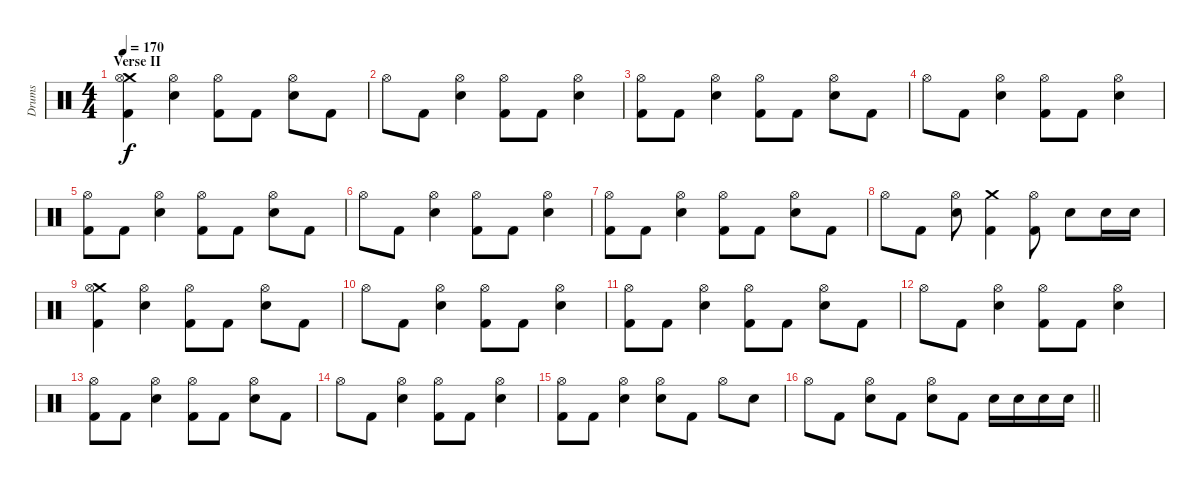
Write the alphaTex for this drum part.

\track ("Drums" "Drums") {instrument percussion}
\staff {score}
\articulation defaults
\ts (4 4)
\section ("" "Verse II")
\tempo 170
\clef neutral
\ks c
("Crash medium (hit)" "Hi-Hat (open)" "Kick (hit) 2").4{dy f} ("Hi-Hat (open)" "Electric Snare (hit)").4 ("Hi-Hat (open)" "Kick (hit) 2").8 "Kick (hit) 2".8 ("Hi-Hat (open)" "Electric Snare (hit)").8 "Kick (hit) 2".8 |
"Hi-Hat (open)".8 "Kick (hit) 2".8 ("Hi-Hat (open)" "Electric Snare (hit)").4 ("Hi-Hat (open)" "Kick (hit) 2").8 "Kick (hit) 2".8 ("Hi-Hat (open)" "Electric Snare (hit)").4 |
("Hi-Hat (open)" "Kick (hit) 2").8 "Kick (hit) 2".8 ("Hi-Hat (open)" "Electric Snare (hit)").4 ("Hi-Hat (open)" "Kick (hit) 2").8 "Kick (hit) 2".8 ("Hi-Hat (open)" "Electric Snare (hit)").8 "Kick (hit) 2".8 |
"Hi-Hat (open)".8 "Kick (hit) 2".8 ("Hi-Hat (open)" "Electric Snare (hit)").4 ("Hi-Hat (open)" "Kick (hit) 2").8 "Kick (hit) 2".8 ("Hi-Hat (open)" "Electric Snare (hit)").4 |
("Hi-Hat (open)" "Kick (hit) 2").8 "Kick (hit) 2".8 ("Hi-Hat (open)" "Electric Snare (hit)").4 ("Hi-Hat (open)" "Kick (hit) 2").8 "Kick (hit) 2".8 ("Hi-Hat (open)" "Electric Snare (hit)").8 "Kick (hit) 2".8 |
"Hi-Hat (open)".8 "Kick (hit) 2".8 ("Hi-Hat (open)" "Electric Snare (hit)").4 ("Hi-Hat (open)" "Kick (hit) 2").8 "Kick (hit) 2".8 ("Hi-Hat (open)" "Electric Snare (hit)").4 |
("Hi-Hat (open)" "Kick (hit) 2").8 "Kick (hit) 2".8 ("Hi-Hat (open)" "Electric Snare (hit)").4 ("Hi-Hat (open)" "Kick (hit) 2").8 "Kick (hit) 2".8 ("Hi-Hat (open)" "Electric Snare (hit)").8 "Kick (hit) 2".8 |
"Hi-Hat (open)".8 "Kick (hit) 2".8 ("Hi-Hat (open)" "Electric Snare (hit)").8 ("Crash medium (hit)" "Kick (hit) 2").4 ("Hi-Hat (open)" "Kick (hit) 2").8 "Electric Snare (hit)".8 "Electric Snare (hit)".16 "Electric Snare (hit)".16 |
("Crash medium (hit)" "Hi-Hat (open)" "Kick (hit) 2").4 ("Hi-Hat (open)" "Electric Snare (hit)").4 ("Hi-Hat (open)" "Kick (hit) 2").8 "Kick (hit) 2".8 ("Hi-Hat (open)" "Electric Snare (hit)").8 "Kick (hit) 2".8 |
"Hi-Hat (open)".8 "Kick (hit) 2".8 ("Hi-Hat (open)" "Electric Snare (hit)").4 ("Hi-Hat (open)" "Kick (hit) 2").8 "Kick (hit) 2".8 ("Hi-Hat (open)" "Electric Snare (hit)").4 |
("Hi-Hat (open)" "Kick (hit) 2").8 "Kick (hit) 2".8 ("Hi-Hat (open)" "Electric Snare (hit)").4 ("Hi-Hat (open)" "Kick (hit) 2").8 "Kick (hit) 2".8 ("Hi-Hat (open)" "Electric Snare (hit)").8 "Kick (hit) 2".8 |
"Hi-Hat (open)".8 "Kick (hit) 2".8 ("Hi-Hat (open)" "Electric Snare (hit)").4 ("Hi-Hat (open)" "Kick (hit) 2").8 "Kick (hit) 2".8 ("Hi-Hat (open)" "Electric Snare (hit)").4 |
("Hi-Hat (open)" "Kick (hit) 2").8 "Kick (hit) 2".8 ("Hi-Hat (open)" "Electric Snare (hit)").4 ("Hi-Hat (open)" "Kick (hit) 2").8 "Kick (hit) 2".8 ("Hi-Hat (open)" "Electric Snare (hit)").8 "Kick (hit) 2".8 |
"Hi-Hat (open)".8 "Kick (hit) 2".8 ("Hi-Hat (open)" "Electric Snare (hit)").4 ("Hi-Hat (open)" "Kick (hit) 2").8 "Kick (hit) 2".8 ("Hi-Hat (open)" "Electric Snare (hit)").4 |
("Hi-Hat (open)" "Kick (hit) 2").8 "Kick (hit) 2".8 ("Hi-Hat (open)" "Electric Snare (hit)").4 ("Hi-Hat (open)" "Electric Snare (hit)").8 "Kick (hit) 2".8 "Hi-Hat (open)".8 "Electric Snare (hit)".8 |
\barLineRight lightlight "Hi-Hat (open)".8 "Kick (hit) 2".8
("Hi-Hat (open)" "Electric Snare (hit)").8 "Kick (hit) 2".8 ("Hi-Hat (open)" "Electric Snare (hit)").8 "Kick (hit) 2".8 "Electric Snare (hit)".16 "Electric Snare (hit)".16 "Electric Snare (hit)".16 "Electric Snare (hit)".16
